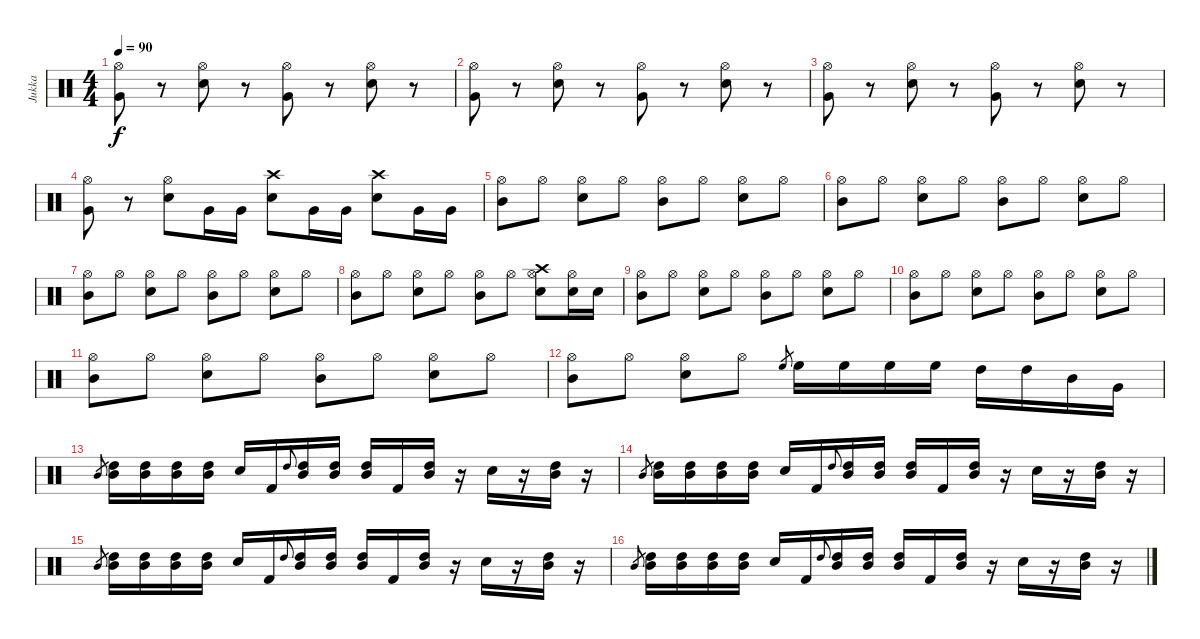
\track ("Jukka" "Jukka") {instrument percussion}
\staff {score}
\articulation defaults
\ts (4 4)
\tempo 90
\clef neutral
\ks c
("Hi-Hat (open)" "Very Low Tom (hit)").8{dy f} r.8 ("Snare (hit) 2" "Hi-Hat (open)").8 r.8 ("Very Low Tom (hit)" "Hi-Hat (open)").8 r.8 ("Snare (hit) 2" "Hi-Hat (open)").8 r.8 |
("Hi-Hat (open)" "Very Low Tom (hit)").8 r.8 ("Snare (hit) 2" "Hi-Hat (open)").8 r.8 ("Very Low Tom (hit)" "Hi-Hat (open)").8 r.8 ("Snare (hit) 2" "Hi-Hat (open)").8 r.8 |
("Hi-Hat (open)" "Very Low Tom (hit)").8 r.8 ("Snare (hit) 2" "Hi-Hat (open)").8 r.8 ("Very Low Tom (hit)" "Hi-Hat (open)").8 r.8 ("Snare (hit) 2" "Hi-Hat (open)").8 r.8 |
("Hi-Hat (open)" "Very Low Tom (hit)").8 r.8 ("Snare (hit) 2" "Hi-Hat (open)").8 "Very Low Tom (hit)".16 "Very Low Tom (hit)".16 ("Snare (hit) 2" "Crash high (hit)").8 "Very Low Tom (hit)".16 "Very Low Tom (hit)".16 ("Snare (hit) 2" "Crash high (hit)").8 "Very Low Tom (hit)".16 "Very Low Tom (hit)".16 |
("Mid Tom (hit)" "Hi-Hat (open)").8 "Hi-Hat (open)".8 ("Hi-Hat (open)" "Snare (hit) 2").8 "Hi-Hat (open)".8 ("Hi-Hat (open)" "Mid Tom (hit)").8 "Hi-Hat (open)".8 ("Hi-Hat (open)" "Snare (hit) 2").8 "Hi-Hat (open)".8 |
("Mid Tom (hit)" "Hi-Hat (open)").8 "Hi-Hat (open)".8 ("Hi-Hat (open)" "Snare (hit) 2").8 "Hi-Hat (open)".8 ("Hi-Hat (open)" "Mid Tom (hit)").8 "Hi-Hat (open)".8 ("Hi-Hat (open)" "Snare (hit) 2").8 "Hi-Hat (open)".8 |
("Mid Tom (hit)" "Hi-Hat (open)").8 "Hi-Hat (open)".8 ("Hi-Hat (open)" "Snare (hit) 2").8 "Hi-Hat (open)".8 ("Hi-Hat (open)" "Mid Tom (hit)").8 "Hi-Hat (open)".8 ("Hi-Hat (open)" "Snare (hit) 2").8 "Hi-Hat (open)".8 |
("Mid Tom (hit)" "Hi-Hat (open)").8 "Hi-Hat (open)".8 ("Hi-Hat (open)" "Snare (hit) 2").8 "Hi-Hat (open)".8 ("Hi-Hat (open)" "Mid Tom (hit)").8 "Hi-Hat (open)".8 ("Hi-Hat (open)" "Snare (hit) 2" "Crash high (hit)").8 ("Hi-Hat (open)" "Snare (hit) 2").16 "Snare (hit) 2".16 |
("Mid Tom (hit)" "Hi-Hat (open)").8 "Hi-Hat (open)".8 ("Hi-Hat (open)" "Snare (hit) 2").8 "Hi-Hat (open)".8 ("Hi-Hat (open)" "Mid Tom (hit)").8 "Hi-Hat (open)".8 ("Hi-Hat (open)" "Snare (hit) 2").8 "Hi-Hat (open)".8 |
("Mid Tom (hit)" "Hi-Hat (open)").8 "Hi-Hat (open)".8 ("Hi-Hat (open)" "Snare (hit) 2").8 "Hi-Hat (open)".8 ("Hi-Hat (open)" "Mid Tom (hit)").8 "Hi-Hat (open)".8 ("Hi-Hat (open)" "Snare (hit) 2").8 "Hi-Hat (open)".8 |
("Mid Tom (hit)" "Hi-Hat (open)").8 "Hi-Hat (open)".8 ("Hi-Hat (open)" "Snare (hit) 2").8 "Hi-Hat (open)".8 ("Hi-Hat (open)" "Mid Tom (hit)").8 "Hi-Hat (open)".8 ("Hi-Hat (open)" "Snare (hit) 2").8 "Hi-Hat (open)".8 |
("Mid Tom (hit)" "Hi-Hat (open)").8 "Hi-Hat (open)".8 ("Hi-Hat (open)" "Snare (hit) 2").8 "Hi-Hat (open)".8 "High Floor Tom (hit)".8{gr} "High Floor Tom (hit)".16 "High Floor Tom (hit)".16 "High Floor Tom (hit)".16 "High Floor Tom (hit)".16 "High Tom (hit)".16 "High Tom (hit)".16 "Mid Tom (hit)".16 "Very Low Tom (hit)".16 |
"Mid Tom (hit)".8{gr} ("High Tom (hit)" "Mid Tom (hit)").16 ("Mid Tom (hit)" "High Tom (hit)").16 ("High Tom (hit)" "Mid Tom (hit)").16 ("Mid Tom (hit)" "High Tom (hit)").16 "Snare (hit) 2".16 "Kick (hit) 2".16 "High Tom (hit)".8{gr onbeat} ("Mid Tom (hit)" "High Tom (hit)").16 ("Mid Tom (hit)" "High Tom (hit)").16 ("Mid Tom (hit)" "High Tom (hit)").16 "Kick (hit) 2".16 ("Mid Tom (hit)" "High Tom (hit)").16 r.16 "Snare (hit) 2".16 r.16 ("Mid Tom (hit)" "High Tom (hit)").16 r.16 |
"Mid Tom (hit)".8{gr} ("High Tom (hit)" "Mid Tom (hit)").16 ("Mid Tom (hit)" "High Tom (hit)").16 ("High Tom (hit)" "Mid Tom (hit)").16 ("Mid Tom (hit)" "High Tom (hit)").16 "Snare (hit) 2".16 "Kick (hit) 2".16 "High Tom (hit)".8{gr onbeat} ("Mid Tom (hit)" "High Tom (hit)").16 ("Mid Tom (hit)" "High Tom (hit)").16 ("Mid Tom (hit)" "High Tom (hit)").16 "Kick (hit) 2".16 ("Mid Tom (hit)" "High Tom (hit)").16 r.16 "Snare (hit) 2".16 r.16 ("Mid Tom (hit)" "High Tom (hit)").16 r.16 |
"Mid Tom (hit)".8{gr} ("High Tom (hit)" "Mid Tom (hit)").16 ("Mid Tom (hit)" "High Tom (hit)").16 ("High Tom (hit)" "Mid Tom (hit)").16 ("Mid Tom (hit)" "High Tom (hit)").16 "Snare (hit) 2".16 "Kick (hit) 2".16 "High Tom (hit)".8{gr onbeat} ("Mid Tom (hit)" "High Tom (hit)").16 ("Mid Tom (hit)" "High Tom (hit)").16 ("Mid Tom (hit)" "High Tom (hit)").16 "Kick (hit) 2".16 ("Mid Tom (hit)" "High Tom (hit)").16 r.16 "Snare (hit) 2".16 r.16 ("Mid Tom (hit)" "High Tom (hit)").16 r.16 |
"Mid Tom (hit)".8{gr} ("High Tom (hit)" "Mid Tom (hit)").16 ("Mid Tom (hit)" "High Tom (hit)").16 ("High Tom (hit)" "Mid Tom (hit)").16 ("Mid Tom (hit)" "High Tom (hit)").16 "Snare (hit) 2".16 "Kick (hit) 2".16 "High Tom (hit)".8{gr onbeat} ("Mid Tom (hit)" "High Tom (hit)").16 ("Mid Tom (hit)" "High Tom (hit)").16 ("Mid Tom (hit)" "High Tom (hit)").16 "Kick (hit) 2".16 ("Mid Tom (hit)" "High Tom (hit)").16 r.16 "Snare (hit) 2".16 r.16 ("Mid Tom (hit)" "High Tom (hit)").16 r.16
